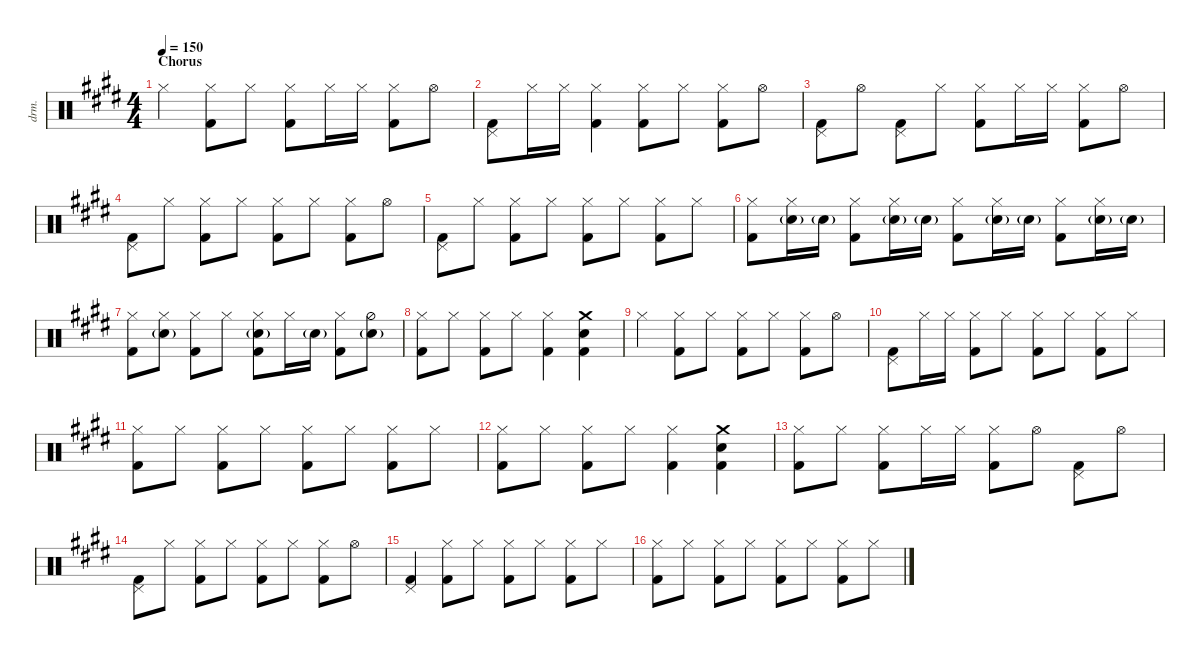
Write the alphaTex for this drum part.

\defaultSystemsLayout 4
\hideDynamics
\bracketExtendMode nobrackets
\otherSystemsTrackNameOrientation horizontal
\track ("Drums - S. Copeland" "drm.") {instrument percussion}
\staff {score}
\articulation defaults
\ts (4 4)
\section ("" "Chorus")
\tempo 150
\clef neutral
\ks c#minor "Hi-Hat (closed)"{acc forcenatural}.4{dy mf beam Down}
("Hi-Hat (closed)"{acc forcenatural} "Kick (hit) 2"{acc forcenatural}).8{beam Down} "Hi-Hat (closed)"{acc forcenatural}.8{beam Down} ("Hi-Hat (closed)"{acc forcenatural} "Kick (hit) 2"{acc forcenatural}).8{beam Down} "Hi-Hat (closed)"{acc forcenatural}.16{beam Down} "Hi-Hat (closed)"{acc forcenatural}.16{beam Down} ("Hi-Hat (closed)"{acc forcenatural} "Kick (hit) 2"{acc forcenatural}).8{beam Down} "Hi-Hat (open)"{acc forcenatural}.8{beam Down} |
("Pedal Hi-Hat (hit)"{acc forcenatural} "Kick (hit) 2"{acc forcenatural}).8{beam Down} "Hi-Hat (closed)"{acc forcenatural}.16{beam Down} "Hi-Hat (closed)"{acc forcenatural}.16{beam Down} ("Hi-Hat (closed)"{acc forcenatural} "Kick (hit) 2"{acc forcenatural}).4{beam Down} ("Hi-Hat (closed)"{acc forcenatural} "Kick (hit) 2"{acc forcenatural}).8{beam Down} "Hi-Hat (closed)"{acc forcenatural}.8{beam Down} ("Hi-Hat (closed)"{acc forcenatural} "Kick (hit) 2"{acc forcenatural}).8{beam Down} "Hi-Hat (open)"{acc forcenatural}.8{beam Down} |
("Pedal Hi-Hat (hit)"{acc forcenatural} "Kick (hit) 2"{acc forcenatural}).8{beam Down} "Hi-Hat (open)"{acc forcenatural}.8{beam Down} ("Pedal Hi-Hat (hit)"{acc forcenatural} "Kick (hit) 2"{acc forcenatural}).8{beam Down} "Hi-Hat (closed)"{acc forcenatural}.8{beam Down} ("Hi-Hat (closed)"{acc forcenatural} "Kick (hit) 2"{acc forcenatural}).8{beam Down} "Hi-Hat (closed)"{acc forcenatural}.16{beam Down} "Hi-Hat (closed)"{acc forcenatural}.16{beam Down} ("Hi-Hat (closed)"{acc forcenatural} "Kick (hit) 2"{acc forcenatural}).8{beam Down} "Hi-Hat (open)"{acc forcenatural}.8{beam Down} |
("Pedal Hi-Hat (hit)"{acc forcenatural} "Kick (hit) 2"{acc forcenatural}).8{beam Down} "Hi-Hat (closed)"{acc forcenatural}.8{beam Down} ("Hi-Hat (closed)"{acc forcenatural} "Kick (hit) 2"{acc forcenatural}).8{beam Down} "Hi-Hat (closed)"{acc forcenatural}.8{beam Down} ("Hi-Hat (closed)"{acc forcenatural} "Kick (hit) 2"{acc forcenatural}).8{beam Down} "Hi-Hat (closed)"{acc forcenatural}.8{beam Down} ("Hi-Hat (closed)"{acc forcenatural} "Kick (hit) 2"{acc forcenatural}).8{beam Down} "Hi-Hat (open)"{acc forcenatural}.8{beam Down} |
("Pedal Hi-Hat (hit)"{acc forcenatural} "Kick (hit) 2"{acc forcenatural}).8{beam Down} "Hi-Hat (closed)"{acc forcenatural}.8{beam Down} ("Hi-Hat (closed)"{acc forcenatural} "Kick (hit) 2"{acc forcenatural}).8{beam Down} "Hi-Hat (closed)"{acc forcenatural}.8{beam Down} ("Hi-Hat (closed)"{acc forcenatural} "Kick (hit) 2"{acc forcenatural}).8{beam Down} "Hi-Hat (closed)"{acc forcenatural}.8{beam Down} ("Hi-Hat (closed)"{acc forcenatural} "Kick (hit) 2"{acc forcenatural}).8{beam Down} "Hi-Hat (closed)"{acc forcenatural}.8{beam Down} |
("Hi-Hat (closed)"{acc forcenatural} "Kick (hit) 2"{acc forcenatural}).8{beam Down} ("Hi-Hat (closed)"{acc forcenatural} "Snare (hit) 2"{g acc forcenatural}).16{beam Down} "Snare (hit) 2"{g acc forcenatural}.16{beam Down} ("Hi-Hat (closed)"{acc forcenatural} "Kick (hit) 2"{acc forcenatural}).8{beam Down} ("Hi-Hat (closed)"{acc forcenatural} "Snare (hit) 2"{g acc forcenatural}).16{beam Down} "Snare (hit) 2"{g acc forcenatural}.16{beam Down} ("Hi-Hat (closed)"{acc forcenatural} "Kick (hit) 2"{acc forcenatural}).8{beam Down} ("Hi-Hat (closed)"{acc forcenatural} "Snare (hit) 2"{g acc forcenatural}).16{beam Down} "Snare (hit) 2"{g acc forcenatural}.16{beam Down} ("Hi-Hat (closed)"{acc forcenatural} "Kick (hit) 2"{acc forcenatural}).8{beam Down} ("Hi-Hat (closed)"{acc forcenatural} "Snare (hit) 2"{g acc forcenatural}).16{beam Down} "Snare (hit) 2"{g acc forcenatural}.16{beam Down} |
("Hi-Hat (closed)"{acc forcenatural} "Kick (hit) 2"{acc forcenatural}).8{beam Down} ("Hi-Hat (closed)"{acc forcenatural} "Snare (hit) 2"{g acc forcenatural}).8{beam Down} ("Hi-Hat (closed)"{acc forcenatural} "Kick (hit) 2"{acc forcenatural}).8{beam Down} "Hi-Hat (closed)"{acc forcenatural}.8{beam Down} ("Hi-Hat (closed)"{acc forcenatural} "Kick (hit) 2"{acc forcenatural} "Snare (hit) 2"{g acc forcenatural}).8{beam Down} "Hi-Hat (closed)"{acc forcenatural}.16{beam Down} "Snare (hit) 2"{g acc forcenatural}.16{beam Down} ("Hi-Hat (closed)"{acc forcenatural} "Kick (hit) 2"{acc forcenatural}).8{beam Down} ("Hi-Hat (half)"{acc forcenatural} "Snare (hit) 2"{g acc forcenatural}).8{beam Down} |
("Hi-Hat (closed)"{acc forcenatural} "Kick (hit) 2"{acc forcenatural}).8{beam Down} "Hi-Hat (closed)"{acc forcenatural}.8{beam Down} ("Hi-Hat (closed)"{acc forcenatural} "Kick (hit) 2"{acc forcenatural}).8{beam Down} "Hi-Hat (closed)"{acc forcenatural}.8{beam Down} ("Hi-Hat (closed)"{acc forcenatural} "Kick (hit) 2"{acc forcenatural}).4{beam Down} ("Kick (hit) 2"{acc forcenatural} "Crash medium (hit)"{acc forcenatural} "Snare (hit) 2"{acc forcenatural}).4{beam Down} |
"Hi-Hat (closed)"{acc forcenatural}.4{beam Down} ("Hi-Hat (closed)"{acc forcenatural} "Kick (hit) 2"{acc forcenatural}).8{beam Down} "Hi-Hat (closed)"{acc forcenatural}.8{beam Down} ("Hi-Hat (closed)"{acc forcenatural} "Kick (hit) 2"{acc forcenatural}).8{beam Down} "Hi-Hat (closed)"{acc forcenatural}.8{beam Down} ("Hi-Hat (closed)"{acc forcenatural} "Kick (hit) 2"{acc forcenatural}).8{beam Down} "Hi-Hat (open)"{acc forcenatural}.8{beam Down} |
("Pedal Hi-Hat (hit)"{acc forcenatural} "Kick (hit) 2"{acc forcenatural}).8{beam Down} "Hi-Hat (closed)"{acc forcenatural}.16{beam Down} "Hi-Hat (closed)"{acc forcenatural}.16{beam Down} ("Hi-Hat (closed)"{acc forcenatural} "Kick (hit) 2"{acc forcenatural}).8{beam Down} "Hi-Hat (closed)"{acc forcenatural}.8{beam Down} ("Hi-Hat (closed)"{acc forcenatural} "Kick (hit) 2"{acc forcenatural}).8{beam Down} "Hi-Hat (closed)"{acc forcenatural}.8{beam Down} ("Hi-Hat (closed)"{acc forcenatural} "Kick (hit) 2"{acc forcenatural}).8{beam Down} "Hi-Hat (closed)"{acc forcenatural}.8{beam Down} |
("Hi-Hat (closed)"{acc forcenatural} "Kick (hit) 2"{acc forcenatural}).8{beam Down} "Hi-Hat (closed)"{acc forcenatural}.8{beam Down} ("Hi-Hat (closed)"{acc forcenatural} "Kick (hit) 2"{acc forcenatural}).8{beam Down} "Hi-Hat (closed)"{acc forcenatural}.8{beam Down} ("Hi-Hat (closed)"{acc forcenatural} "Kick (hit) 2"{acc forcenatural}).8{beam Down} "Hi-Hat (closed)"{acc forcenatural}.8{beam Down} ("Hi-Hat (closed)"{acc forcenatural} "Kick (hit) 2"{acc forcenatural}).8{beam Down} "Hi-Hat (closed)"{acc forcenatural}.8{beam Down} |
("Hi-Hat (closed)"{acc forcenatural} "Kick (hit) 2"{acc forcenatural}).8{beam Down} "Hi-Hat (closed)"{acc forcenatural}.8{beam Down} ("Hi-Hat (closed)"{acc forcenatural} "Kick (hit) 2"{acc forcenatural}).8{beam Down} "Hi-Hat (closed)"{acc forcenatural}.8{beam Down} ("Hi-Hat (closed)"{acc forcenatural} "Kick (hit) 2"{acc forcenatural}).4{beam Down} ("Kick (hit) 2"{acc forcenatural} "Crash medium (hit)"{acc forcenatural} "Snare (hit) 2"{acc forcenatural}).4{beam Down} |
("Hi-Hat (closed)"{acc forcenatural} "Kick (hit) 2"{acc forcenatural}).8{beam Down} "Hi-Hat (closed)"{acc forcenatural}.8{beam Down} ("Hi-Hat (closed)"{acc forcenatural} "Kick (hit) 2"{acc forcenatural}).8{beam Down} "Hi-Hat (closed)"{acc forcenatural}.16{beam Down} "Hi-Hat (closed)"{acc forcenatural}.16{beam Down} ("Hi-Hat (closed)"{acc forcenatural} "Kick (hit) 2"{acc forcenatural}).8{beam Down} "Hi-Hat (open)"{acc forcenatural}.8{beam Down} ("Pedal Hi-Hat (hit)"{acc forcenatural} "Kick (hit) 2"{acc forcenatural}).8{beam Down} "Hi-Hat (open)"{acc forcenatural}.8{beam Down} |
("Pedal Hi-Hat (hit)"{acc forcenatural} "Kick (hit) 2"{acc forcenatural}).8{beam Down} "Hi-Hat (closed)"{acc forcenatural}.8{beam Down} ("Hi-Hat (closed)"{acc forcenatural} "Kick (hit) 2"{acc forcenatural}).8{beam Down} "Hi-Hat (closed)"{acc forcenatural}.8{beam Down} ("Hi-Hat (closed)"{acc forcenatural} "Kick (hit) 2"{acc forcenatural}).8{beam Down} "Hi-Hat (closed)"{acc forcenatural}.8{beam Down} ("Hi-Hat (closed)"{acc forcenatural} "Kick (hit) 2"{acc forcenatural}).8{beam Down} "Hi-Hat (open)"{acc forcenatural}.8{beam Down} |
("Pedal Hi-Hat (hit)"{acc forcenatural} "Kick (hit) 2"{acc forcenatural}).4{beam Up} ("Hi-Hat (closed)"{acc forcenatural} "Kick (hit) 2"{acc forcenatural}).8{beam Down} "Hi-Hat (closed)"{acc forcenatural}.8{beam Down} ("Hi-Hat (closed)"{acc forcenatural} "Kick (hit) 2"{acc forcenatural}).8{beam Down} "Hi-Hat (closed)"{acc forcenatural}.8{beam Down} ("Hi-Hat (closed)"{acc forcenatural} "Kick (hit) 2"{acc forcenatural}).8{beam Down} "Hi-Hat (closed)"{acc forcenatural}.8{beam Down} |
("Hi-Hat (closed)"{acc forcenatural} "Kick (hit) 2"{acc forcenatural}).8{beam Down} "Hi-Hat (closed)"{acc forcenatural}.8{beam Down} ("Hi-Hat (closed)"{acc forcenatural} "Kick (hit) 2"{acc forcenatural}).8{beam Down} "Hi-Hat (closed)"{acc forcenatural}.8{beam Down} ("Hi-Hat (closed)"{acc forcenatural} "Kick (hit) 2"{acc forcenatural}).8{beam Down} "Hi-Hat (closed)"{acc forcenatural}.8{beam Down} ("Hi-Hat (closed)"{acc forcenatural} "Kick (hit) 2"{acc forcenatural}).8{beam Down} "Hi-Hat (closed)"{acc forcenatural}.8{beam Down}
